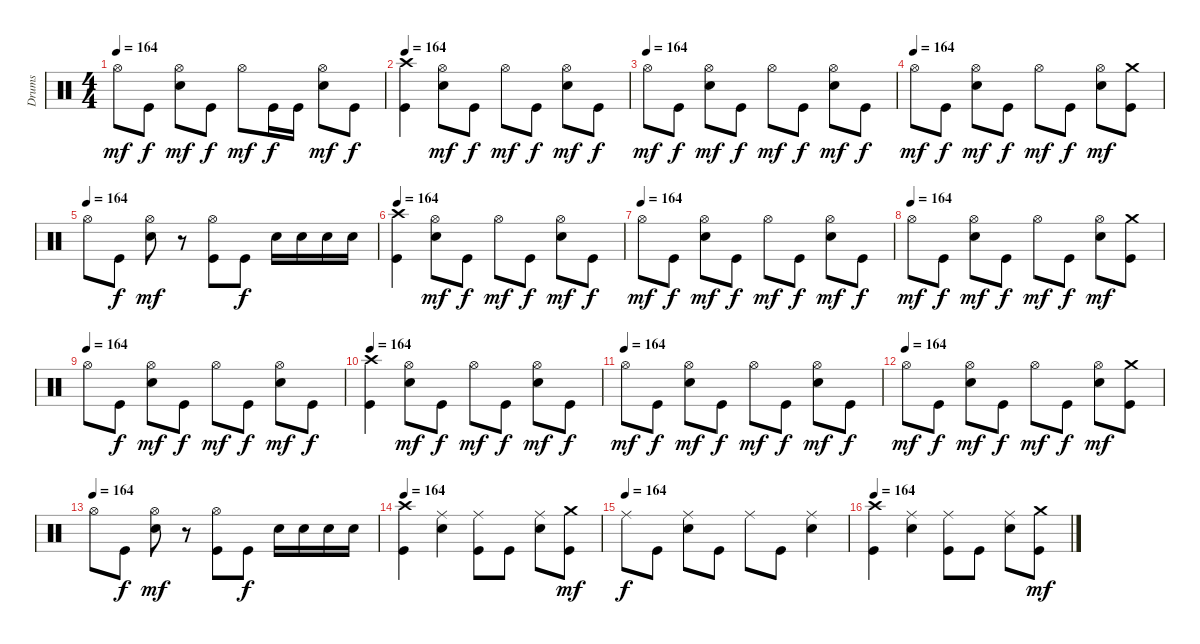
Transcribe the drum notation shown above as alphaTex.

\track ("Drums" "Drums") {instrument percussion}
\staff {score}
\articulation defaults
\ts (4 4)
\tempo 164
\clef neutral
\ks c "Hi-Hat (open)".8{dy mf} "Kick (hit)".8{dy f}
("Electric Snare (hit)" "Hi-Hat (open)").8{dy mf} "Kick (hit)".8{dy f} "Hi-Hat (open)".8{dy mf} "Kick (hit)".16{dy f} "Kick (hit)".16 ("Electric Snare (hit)" "Hi-Hat (open)").8{dy mf} "Kick (hit)".8{dy f} |
\tempo 164
("Kick (hit)" "Crash high (hit)").4 ("Electric Snare (hit)" "Hi-Hat (open)").8{dy mf} "Kick (hit)".8{dy f} "Hi-Hat (open)".8{dy mf} "Kick (hit)".8{dy f} ("Electric Snare (hit)" "Hi-Hat (open)").8{dy mf} "Kick (hit)".8{dy f} |
\tempo (164)
"Hi-Hat (open)".8{dy mf} "Kick (hit)".8{dy f} ("Electric Snare (hit)" "Hi-Hat (open)").8{dy mf} "Kick (hit)".8{dy f} "Hi-Hat (open)".8{dy mf} "Kick (hit)".8{dy f} ("Electric Snare (hit)" "Hi-Hat (open)").8{dy mf} "Kick (hit)".8{dy f} |
\tempo (164)
"Hi-Hat (open)".8{dy mf} "Kick (hit)".8{dy f} ("Electric Snare (hit)" "Hi-Hat (open)").8{dy mf} "Kick (hit)".8{dy f} "Hi-Hat (open)".8{dy mf} "Kick (hit)".8{dy f} ("Electric Snare (hit)" "Hi-Hat (open)").8{dy mf} ("Kick (hit)" "Crash medium (hit)").8 |
\tempo (164)
"Hi-Hat (open)".8 "Kick (hit)".8{dy f} ("Electric Snare (hit)" "Hi-Hat (open)").8{dy mf} r.8 ("Kick (hit)" "Hi-Hat (open)").8 "Kick (hit)".8{dy f} "Electric Snare (hit)".16 "Electric Snare (hit)".16 "Electric Snare (hit)".16 "Electric Snare (hit)".16 |
\tempo 164
("Kick (hit)" "Crash high (hit)").4 ("Electric Snare (hit)" "Hi-Hat (open)").8{dy mf} "Kick (hit)".8{dy f} "Hi-Hat (open)".8{dy mf} "Kick (hit)".8{dy f} ("Electric Snare (hit)" "Hi-Hat (open)").8{dy mf} "Kick (hit)".8{dy f} |
\tempo (164)
"Hi-Hat (open)".8{dy mf} "Kick (hit)".8{dy f} ("Electric Snare (hit)" "Hi-Hat (open)").8{dy mf} "Kick (hit)".8{dy f} "Hi-Hat (open)".8{dy mf} "Kick (hit)".8{dy f} ("Electric Snare (hit)" "Hi-Hat (open)").8{dy mf} "Kick (hit)".8{dy f} |
\tempo (164)
"Hi-Hat (open)".8{dy mf} "Kick (hit)".8{dy f} ("Electric Snare (hit)" "Hi-Hat (open)").8{dy mf} "Kick (hit)".8{dy f} "Hi-Hat (open)".8{dy mf} "Kick (hit)".8{dy f} ("Electric Snare (hit)" "Hi-Hat (open)").8{dy mf} ("Kick (hit)" "Crash medium (hit)").8 |
\tempo (164)
"Hi-Hat (open)".8 "Kick (hit)".8{dy f} ("Electric Snare (hit)" "Hi-Hat (open)").8{dy mf} "Kick (hit)".8{dy f} "Hi-Hat (open)".8{dy mf} "Kick (hit)".8{dy f} ("Electric Snare (hit)" "Hi-Hat (open)").8{dy mf} "Kick (hit)".8{dy f} |
\tempo 164
("Kick (hit)" "Crash high (hit)").4 ("Electric Snare (hit)" "Hi-Hat (open)").8{dy mf} "Kick (hit)".8{dy f} "Hi-Hat (open)".8{dy mf} "Kick (hit)".8{dy f} ("Electric Snare (hit)" "Hi-Hat (open)").8{dy mf} "Kick (hit)".8{dy f} |
\tempo (164)
"Hi-Hat (open)".8{dy mf} "Kick (hit)".8{dy f} ("Electric Snare (hit)" "Hi-Hat (open)").8{dy mf} "Kick (hit)".8{dy f} "Hi-Hat (open)".8{dy mf} "Kick (hit)".8{dy f} ("Electric Snare (hit)" "Hi-Hat (open)").8{dy mf} "Kick (hit)".8{dy f} |
\tempo (164)
"Hi-Hat (open)".8{dy mf} "Kick (hit)".8{dy f} ("Electric Snare (hit)" "Hi-Hat (open)").8{dy mf} "Kick (hit)".8{dy f} "Hi-Hat (open)".8{dy mf} "Kick (hit)".8{dy f} ("Electric Snare (hit)" "Hi-Hat (open)").8{dy mf} ("Kick (hit)" "Crash medium (hit)").8 |
\tempo (164)
"Hi-Hat (open)".8 "Kick (hit)".8{dy f} ("Electric Snare (hit)" "Hi-Hat (open)").8{dy mf} r.8 ("Kick (hit)" "Hi-Hat (open)").8 "Kick (hit)".8{dy f} "Electric Snare (hit)".16 "Electric Snare (hit)".16 "Electric Snare (hit)".16 "Electric Snare (hit)".16 |
\tempo 164
("Kick (hit)" "Crash high (hit)").4 ("Electric Snare (hit)" "Ride (middle)").4 ("Kick (hit)" "Ride (middle)").8 "Kick (hit)".8 ("Electric Snare (hit)" "Ride (middle)").8 ("Kick (hit)" "Crash medium (hit)").8{dy mf} |
\tempo (164)
"Ride (middle)".8{dy f} "Kick (hit)".8 ("Electric Snare (hit)" "Ride (middle)").8 "Kick (hit)".8 "Ride (middle)".8 "Kick (hit)".8 ("Electric Snare (hit)" "Ride (middle)").4 |
\tempo 164
("Kick (hit)" "Crash high (hit)").4 ("Electric Snare (hit)" "Ride (middle)").4 ("Kick (hit)" "Ride (middle)").8 "Kick (hit)".8 ("Electric Snare (hit)" "Ride (middle)").8 ("Kick (hit)" "Crash medium (hit)").8{dy mf}
